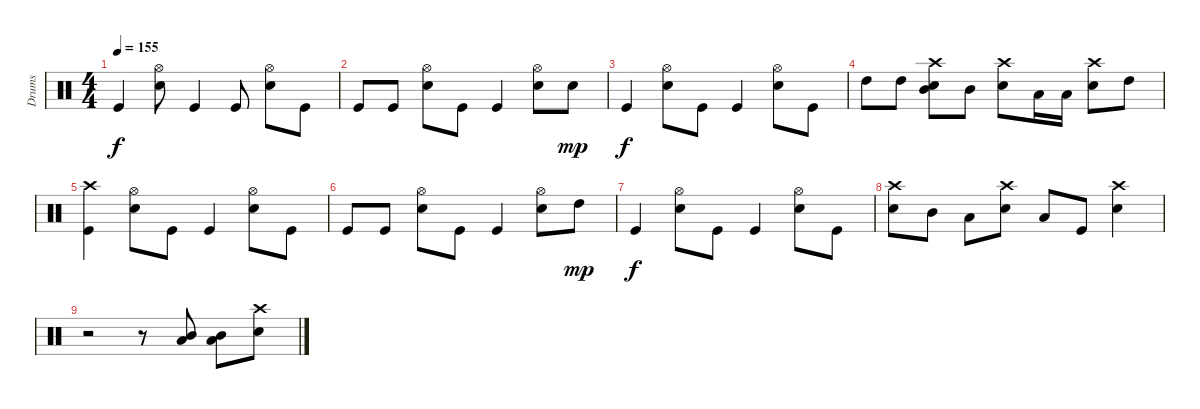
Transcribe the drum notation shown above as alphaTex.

\track ("Drums" "Drums") {instrument percussion}
\staff {score}
\articulation defaults
\ts (4 4)
\tempo 155
\clef neutral
\ks c "Kick (hit)".4{dy f}
("Snare (hit) 2" "Hi-Hat (open)").8 "Kick (hit)".4 "Kick (hit)".8 ("Snare (hit) 2" "Hi-Hat (open)").8 "Kick (hit)".8 |
"Kick (hit)".8 "Kick (hit)".8 ("Snare (hit) 2" "Hi-Hat (open)").8 "Kick (hit)".8 "Kick (hit)".4 ("Snare (hit) 2" "Hi-Hat (open)").8 "Snare (hit) 2".8{dy mp} |
"Kick (hit)".4{dy f} ("Snare (hit) 2" "Hi-Hat (open)").8 "Kick (hit)".8 "Kick (hit)".4 ("Snare (hit) 2" "Hi-Hat (open)").8 "Kick (hit)".8 |
"High Tom (hit)".8 "High Tom (hit)".8 ("Mid Tom (hit)" "Snare (hit) 2" "Crash high (hit)").8 "Mid Tom (hit)".8 ("Snare (hit) 2" "Crash high (hit)").8 "Low Tom (hit)".16 "Low Tom (hit)".16 ("Snare (hit) 2" "Crash high (hit)").8 "High Tom (hit)".8 |
("Kick (hit)" "Crash high (hit)").4 ("Snare (hit) 2" "Hi-Hat (open)").8 "Kick (hit)".8 "Kick (hit)".4 ("Snare (hit) 2" "Hi-Hat (open)").8 "Kick (hit)".8 |
"Kick (hit)".8 "Kick (hit)".8 ("Snare (hit) 2" "Hi-Hat (open)").8 "Kick (hit)".8 "Kick (hit)".4 ("Snare (hit) 2" "Hi-Hat (open)").8 "High Tom (hit)".8{dy mp} |
"Kick (hit)".4{dy f} ("Snare (hit) 2" "Hi-Hat (open)").8 "Kick (hit)".8 "Kick (hit)".4 ("Snare (hit) 2" "Hi-Hat (open)").8 "Kick (hit)".8 |
("Snare (hit) 2" "Crash high (hit)").8 "Mid Tom (hit)".8 "Low Tom (hit)".8 ("Snare (hit) 2" "Crash high (hit)").8 "Low Tom (hit)".8 "Kick (hit)".8 ("Snare (hit) 2" "Crash high (hit)").4 |
r.2 r.8 ("Low Tom (hit)" "Mid Tom (hit)").8 ("Low Tom (hit)" "Mid Tom (hit)").8 ("Snare (hit) 2" "Crash high (hit)").8
